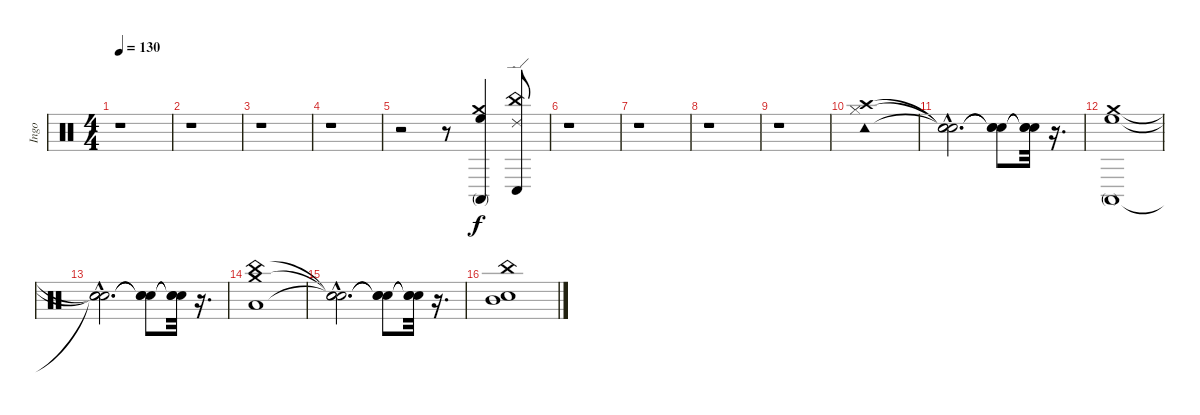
\track ("Ingo" "Ingo") {instrument percussion}
\staff {score}
\articulation defaults
\ts (4 4)
\tempo 130
\clef neutral
\ks c
r.1{dy f} |
r.1 |
r.1 |
r.1 |
r.2 r.8 ("Conga high (mute)" "High Floor Tom (hit)" "Crash medium (hit)").4 ("Conga low (hit)" "China (hit)" "Ride (edge) 2").8 |
r.1 |
r.1 |
r.1 |
r.1 |
("Tambourine (hit)" "Hi-Hat (closed)" "Crash high (hit)").1 |
("Snare (hit)"{hac t} "Snare (hit)"{hac t} "Snare (hit)"{hac t}).2{d} ("Snare (hit)"{t} "Snare (hit)"{t} "Snare (hit)"{t}).8 ("Snare (hit)"{t} "Snare (hit)"{t} "Snare (hit)"{t}).32 r.16{d} |
("Conga high (mute)" "High Floor Tom (hit)" "Crash medium (hit)").1 |
("Snare (hit)"{hac t} "Snare (hit)"{hac t} "Snare (hit)"{hac t}).2{d} ("Snare (hit)"{t} "Snare (hit)"{t} "Snare (hit)"{t}).8 ("Snare (hit)"{t} "Snare (hit)"{t} "Snare (hit)"{t}).32 r.16{d} |
("Crash medium (hit)" "Low Tom (hit)" "China (hit)").1 |
("Snare (hit)"{hac t} "Snare (hit)"{hac t} "Snare (hit)"{hac t}).2{d} ("Snare (hit)"{t} "Snare (hit)"{t} "Snare (hit)"{t}).8 ("Snare (hit)"{t} "Snare (hit)"{t} "Snare (hit)"{t}).32 r.16{d} |
("China (hit)" "Electric Snare (hit)" "Mid Tom (hit)").1
